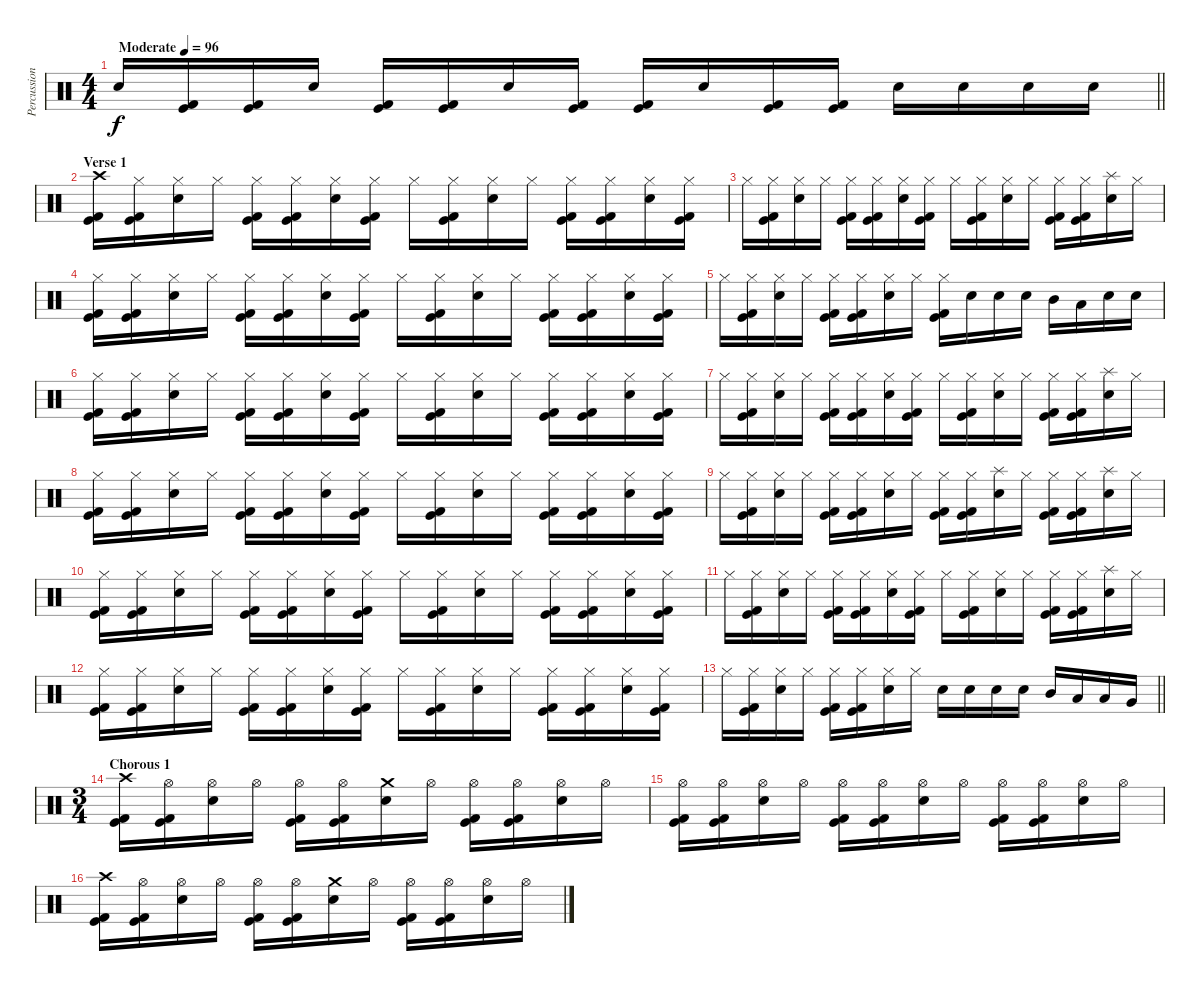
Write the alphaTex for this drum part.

\track ("Percussion" "Percussion") {instrument percussion}
\staff {score}
\articulation defaults
\ts (4 4)
\tempo (96 "Moderate")
\clef neutral
\barLineRight lightlight
\ks c "Electric Snare (hit)".16{dy f}
("Kick (hit)" "Kick (hit) 2").16 ("Kick (hit)" "Kick (hit) 2").16 "Electric Snare (hit)".16 ("Kick (hit)" "Kick (hit) 2").16 ("Kick (hit)" "Kick (hit) 2").16 "Electric Snare (hit)".16 ("Kick (hit)" "Kick (hit) 2").16 ("Kick (hit)" "Kick (hit) 2").16 "Electric Snare (hit)".16 ("Kick (hit)" "Kick (hit) 2").16 ("Kick (hit)" "Kick (hit) 2").16 "Electric Snare (hit)".16 "Electric Snare (hit)".16 "Electric Snare (hit)".16 "Electric Snare (hit)".16 |
\section ("" "Verse 1")
("Crash high (hit)" "Kick (hit)" "Kick (hit) 2").16 ("Hi-Hat (closed)" "Kick (hit)" "Kick (hit) 2").16 ("Hi-Hat (closed)" "Electric Snare (hit)").16 "Hi-Hat (closed)".16 ("Hi-Hat (closed)" "Kick (hit)" "Kick (hit) 2").16 ("Hi-Hat (closed)" "Kick (hit)" "Kick (hit) 2").16 ("Hi-Hat (closed)" "Electric Snare (hit)").16 ("Hi-Hat (closed)" "Kick (hit)" "Kick (hit) 2").16 "Hi-Hat (closed)".16 ("Hi-Hat (closed)" "Kick (hit)" "Kick (hit) 2").16 ("Hi-Hat (closed)" "Electric Snare (hit)").16 "Hi-Hat (closed)".16 ("Hi-Hat (closed)" "Kick (hit)" "Kick (hit) 2").16 ("Hi-Hat (closed)" "Kick (hit)" "Kick (hit) 2").16 ("Hi-Hat (closed)" "Electric Snare (hit)").16 ("Hi-Hat (closed)" "Kick (hit)" "Kick (hit) 2").16 |
"Hi-Hat (closed)".16 ("Hi-Hat (closed)" "Kick (hit)" "Kick (hit) 2").16 ("Hi-Hat (closed)" "Electric Snare (hit)").16 "Hi-Hat (closed)".16 ("Hi-Hat (closed)" "Kick (hit)" "Kick (hit) 2").16 ("Hi-Hat (closed)" "Kick (hit)" "Kick (hit) 2").16 ("Hi-Hat (closed)" "Electric Snare (hit)").16 ("Hi-Hat (closed)" "Kick (hit)" "Kick (hit) 2").16 "Hi-Hat (closed)".16 ("Hi-Hat (closed)" "Kick (hit)" "Kick (hit) 2").16 ("Hi-Hat (closed)" "Electric Snare (hit)").16 "Hi-Hat (closed)".16 ("Hi-Hat (closed)" "Kick (hit)" "Kick (hit) 2").16 ("Hi-Hat (closed)" "Kick (hit)" "Kick (hit) 2").16 ("Splash (hit)" "Electric Snare (hit)").16 "Hi-Hat (closed)".16 |
("Hi-Hat (closed)" "Kick (hit)" "Kick (hit) 2").16 ("Hi-Hat (closed)" "Kick (hit)" "Kick (hit) 2").16 ("Hi-Hat (closed)" "Electric Snare (hit)").16 "Hi-Hat (closed)".16 ("Hi-Hat (closed)" "Kick (hit)" "Kick (hit) 2").16 ("Hi-Hat (closed)" "Kick (hit)" "Kick (hit) 2").16 ("Hi-Hat (closed)" "Electric Snare (hit)").16 ("Hi-Hat (closed)" "Kick (hit)" "Kick (hit) 2").16 "Hi-Hat (closed)".16 ("Hi-Hat (closed)" "Kick (hit)" "Kick (hit) 2").16 ("Hi-Hat (closed)" "Electric Snare (hit)").16 "Hi-Hat (closed)".16 ("Hi-Hat (closed)" "Kick (hit)" "Kick (hit) 2").16 ("Hi-Hat (closed)" "Kick (hit)" "Kick (hit) 2").16 ("Hi-Hat (closed)" "Electric Snare (hit)").16 ("Hi-Hat (closed)" "Kick (hit)" "Kick (hit) 2").16 |
"Hi-Hat (closed)".16 ("Hi-Hat (closed)" "Kick (hit)" "Kick (hit) 2").16 ("Hi-Hat (closed)" "Electric Snare (hit)").16 "Hi-Hat (closed)".16 ("Hi-Hat (closed)" "Kick (hit)" "Kick (hit) 2").16 ("Hi-Hat (closed)" "Kick (hit)" "Kick (hit) 2").16 ("Hi-Hat (closed)" "Electric Snare (hit)").16 "Hi-Hat (closed)".16 ("Hi-Hat (closed)" "Kick (hit)" "Kick (hit) 2").16 "Electric Snare (hit)".16 "Electric Snare (hit)".16 "Electric Snare (hit)".16 "Mid Tom (hit)".16 "Low Tom (hit)".16 "Electric Snare (hit)".16 "Electric Snare (hit)".16 |
("Hi-Hat (closed)" "Kick (hit)" "Kick (hit) 2").16 ("Hi-Hat (closed)" "Kick (hit)" "Kick (hit) 2").16 ("Hi-Hat (closed)" "Electric Snare (hit)").16 "Hi-Hat (closed)".16 ("Hi-Hat (closed)" "Kick (hit)" "Kick (hit) 2").16 ("Hi-Hat (closed)" "Kick (hit)" "Kick (hit) 2").16 ("Hi-Hat (closed)" "Electric Snare (hit)").16 ("Hi-Hat (closed)" "Kick (hit)" "Kick (hit) 2").16 "Hi-Hat (closed)".16 ("Hi-Hat (closed)" "Kick (hit)" "Kick (hit) 2").16 ("Hi-Hat (closed)" "Electric Snare (hit)").16 "Hi-Hat (closed)".16 ("Hi-Hat (closed)" "Kick (hit)" "Kick (hit) 2").16 ("Hi-Hat (closed)" "Kick (hit)" "Kick (hit) 2").16 ("Hi-Hat (closed)" "Electric Snare (hit)").16 ("Hi-Hat (closed)" "Kick (hit)" "Kick (hit) 2").16 |
"Hi-Hat (closed)".16 ("Hi-Hat (closed)" "Kick (hit)" "Kick (hit) 2").16 ("Hi-Hat (closed)" "Electric Snare (hit)").16 "Hi-Hat (closed)".16 ("Hi-Hat (closed)" "Kick (hit)" "Kick (hit) 2").16 ("Hi-Hat (closed)" "Kick (hit)" "Kick (hit) 2").16 ("Hi-Hat (closed)" "Electric Snare (hit)").16 ("Hi-Hat (closed)" "Kick (hit)" "Kick (hit) 2").16 "Hi-Hat (closed)".16 ("Hi-Hat (closed)" "Kick (hit)" "Kick (hit) 2").16 ("Hi-Hat (closed)" "Electric Snare (hit)").16 "Hi-Hat (closed)".16 ("Hi-Hat (closed)" "Kick (hit)" "Kick (hit) 2").16 ("Hi-Hat (closed)" "Kick (hit)" "Kick (hit) 2").16 ("Splash (hit)" "Electric Snare (hit)").16 "Hi-Hat (closed)".16 |
("Hi-Hat (closed)" "Kick (hit)" "Kick (hit) 2").16 ("Hi-Hat (closed)" "Kick (hit)" "Kick (hit) 2").16 ("Hi-Hat (closed)" "Electric Snare (hit)").16 "Hi-Hat (closed)".16 ("Hi-Hat (closed)" "Kick (hit)" "Kick (hit) 2").16 ("Hi-Hat (closed)" "Kick (hit)" "Kick (hit) 2").16 ("Hi-Hat (closed)" "Electric Snare (hit)").16 ("Hi-Hat (closed)" "Kick (hit)" "Kick (hit) 2").16 "Hi-Hat (closed)".16 ("Hi-Hat (closed)" "Kick (hit)" "Kick (hit) 2").16 ("Hi-Hat (closed)" "Electric Snare (hit)").16 "Hi-Hat (closed)".16 ("Hi-Hat (closed)" "Kick (hit)" "Kick (hit) 2").16 ("Hi-Hat (closed)" "Kick (hit)" "Kick (hit) 2").16 ("Hi-Hat (closed)" "Electric Snare (hit)").16 ("Hi-Hat (closed)" "Kick (hit)" "Kick (hit) 2").16 |
"Hi-Hat (closed)".16 ("Hi-Hat (closed)" "Kick (hit)" "Kick (hit) 2").16 ("Hi-Hat (closed)" "Electric Snare (hit)").16 "Hi-Hat (closed)".16 ("Hi-Hat (closed)" "Kick (hit)" "Kick (hit) 2").16 ("Hi-Hat (closed)" "Kick (hit)" "Kick (hit) 2").16 ("Hi-Hat (closed)" "Electric Snare (hit)").16 "Hi-Hat (closed)".16 ("Hi-Hat (closed)" "Kick (hit)" "Kick (hit) 2").16 ("Hi-Hat (closed)" "Kick (hit)" "Kick (hit) 2").16 ("Splash (hit)" "Electric Snare (hit)").16 "Hi-Hat (closed)".16 ("Hi-Hat (closed)" "Kick (hit)" "Kick (hit) 2").16 ("Hi-Hat (closed)" "Kick (hit)" "Kick (hit) 2").16 ("Splash (hit)" "Electric Snare (hit)").16 "Hi-Hat (closed)".16 |
("Hi-Hat (closed)" "Kick (hit)" "Kick (hit) 2").16 ("Hi-Hat (closed)" "Kick (hit)" "Kick (hit) 2").16 ("Hi-Hat (closed)" "Electric Snare (hit)").16 "Hi-Hat (closed)".16 ("Hi-Hat (closed)" "Kick (hit)" "Kick (hit) 2").16 ("Hi-Hat (closed)" "Kick (hit)" "Kick (hit) 2").16 ("Hi-Hat (closed)" "Electric Snare (hit)").16 ("Hi-Hat (closed)" "Kick (hit)" "Kick (hit) 2").16 "Hi-Hat (closed)".16 ("Hi-Hat (closed)" "Kick (hit)" "Kick (hit) 2").16 ("Hi-Hat (closed)" "Electric Snare (hit)").16 "Hi-Hat (closed)".16 ("Hi-Hat (closed)" "Kick (hit)" "Kick (hit) 2").16 ("Hi-Hat (closed)" "Kick (hit)" "Kick (hit) 2").16 ("Hi-Hat (closed)" "Electric Snare (hit)").16 ("Hi-Hat (closed)" "Kick (hit)" "Kick (hit) 2").16 |
"Hi-Hat (closed)".16 ("Hi-Hat (closed)" "Kick (hit)" "Kick (hit) 2").16 ("Hi-Hat (closed)" "Electric Snare (hit)").16 "Hi-Hat (closed)".16 ("Hi-Hat (closed)" "Kick (hit)" "Kick (hit) 2").16 ("Hi-Hat (closed)" "Kick (hit)" "Kick (hit) 2").16 ("Hi-Hat (closed)" "Electric Snare (hit)").16 ("Hi-Hat (closed)" "Kick (hit)" "Kick (hit) 2").16 "Hi-Hat (closed)".16 ("Hi-Hat (closed)" "Kick (hit)" "Kick (hit) 2").16 ("Hi-Hat (closed)" "Electric Snare (hit)").16 "Hi-Hat (closed)".16 ("Hi-Hat (closed)" "Kick (hit)" "Kick (hit) 2").16 ("Hi-Hat (closed)" "Kick (hit)" "Kick (hit) 2").16 ("Splash (hit)" "Electric Snare (hit)").16 "Hi-Hat (closed)".16 |
("Hi-Hat (closed)" "Kick (hit)" "Kick (hit) 2").16 ("Hi-Hat (closed)" "Kick (hit)" "Kick (hit) 2").16 ("Hi-Hat (closed)" "Electric Snare (hit)").16 "Hi-Hat (closed)".16 ("Hi-Hat (closed)" "Kick (hit)" "Kick (hit) 2").16 ("Hi-Hat (closed)" "Kick (hit)" "Kick (hit) 2").16 ("Hi-Hat (closed)" "Electric Snare (hit)").16 ("Hi-Hat (closed)" "Kick (hit)" "Kick (hit) 2").16 "Hi-Hat (closed)".16 ("Hi-Hat (closed)" "Kick (hit)" "Kick (hit) 2").16 ("Hi-Hat (closed)" "Electric Snare (hit)").16 "Hi-Hat (closed)".16 ("Hi-Hat (closed)" "Kick (hit)" "Kick (hit) 2").16 ("Hi-Hat (closed)" "Kick (hit)" "Kick (hit) 2").16 ("Hi-Hat (closed)" "Electric Snare (hit)").16 ("Hi-Hat (closed)" "Kick (hit)" "Kick (hit) 2").16 |
\barLineRight lightlight "Hi-Hat (closed)".16
("Hi-Hat (closed)" "Kick (hit)" "Kick (hit) 2").16 ("Hi-Hat (closed)" "Electric Snare (hit)").16 "Hi-Hat (closed)".16 ("Hi-Hat (closed)" "Kick (hit)" "Kick (hit) 2").16 ("Hi-Hat (closed)" "Kick (hit)" "Kick (hit) 2").16 ("Hi-Hat (closed)" "Electric Snare (hit)").16 "Hi-Hat (closed)".16 "Electric Snare (hit)".16 "Electric Snare (hit)".16 "Electric Snare (hit)".16 "Electric Snare (hit)".16 "Mid Tom (hit)".16 "Low Tom (hit)".16 "Low Tom (hit)".16 "Very Low Tom (hit)".16 |
\ts (3 4)
\section ("" "Chorous 1")
("Crash high (hit)" "Kick (hit)" "Kick (hit) 2").16 ("Hi-Hat (open)" "Kick (hit)" "Kick (hit) 2").16 ("Hi-Hat (open)" "Electric Snare (hit)").16 "Hi-Hat (open)".16 ("Hi-Hat (open)" "Kick (hit)" "Kick (hit) 2").16 ("Hi-Hat (open)" "Kick (hit)" "Kick (hit) 2").16 ("Crash medium (hit)" "Electric Snare (hit)").16 "Hi-Hat (open)".16 ("Hi-Hat (open)" "Kick (hit)" "Kick (hit) 2").16 ("Hi-Hat (open)" "Kick (hit)" "Kick (hit) 2").16 ("Hi-Hat (open)" "Electric Snare (hit)").16 "Hi-Hat (open)".16 |
("Hi-Hat (open)" "Kick (hit)" "Kick (hit) 2").16 ("Hi-Hat (open)" "Kick (hit)" "Kick (hit) 2").16 ("Hi-Hat (open)" "Electric Snare (hit)").16 "Hi-Hat (open)".16 ("Hi-Hat (open)" "Kick (hit)" "Kick (hit) 2").16 ("Hi-Hat (open)" "Kick (hit)" "Kick (hit) 2").16 ("Hi-Hat (open)" "Electric Snare (hit)").16 "Hi-Hat (open)".16 ("Hi-Hat (open)" "Kick (hit)" "Kick (hit) 2").16 ("Hi-Hat (open)" "Kick (hit)" "Kick (hit) 2").16 ("Hi-Hat (open)" "Electric Snare (hit)").16 "Hi-Hat (open)".16 |
("Crash high (hit)" "Kick (hit)" "Kick (hit) 2").16 ("Hi-Hat (open)" "Kick (hit)" "Kick (hit) 2").16 ("Hi-Hat (open)" "Electric Snare (hit)").16 "Hi-Hat (open)".16 ("Hi-Hat (open)" "Kick (hit)" "Kick (hit) 2").16 ("Hi-Hat (open)" "Kick (hit)" "Kick (hit) 2").16 ("Crash medium (hit)" "Electric Snare (hit)").16 "Hi-Hat (open)".16 ("Hi-Hat (open)" "Kick (hit)" "Kick (hit) 2").16 ("Hi-Hat (open)" "Kick (hit)" "Kick (hit) 2").16 ("Hi-Hat (open)" "Electric Snare (hit)").16 "Hi-Hat (open)".16
